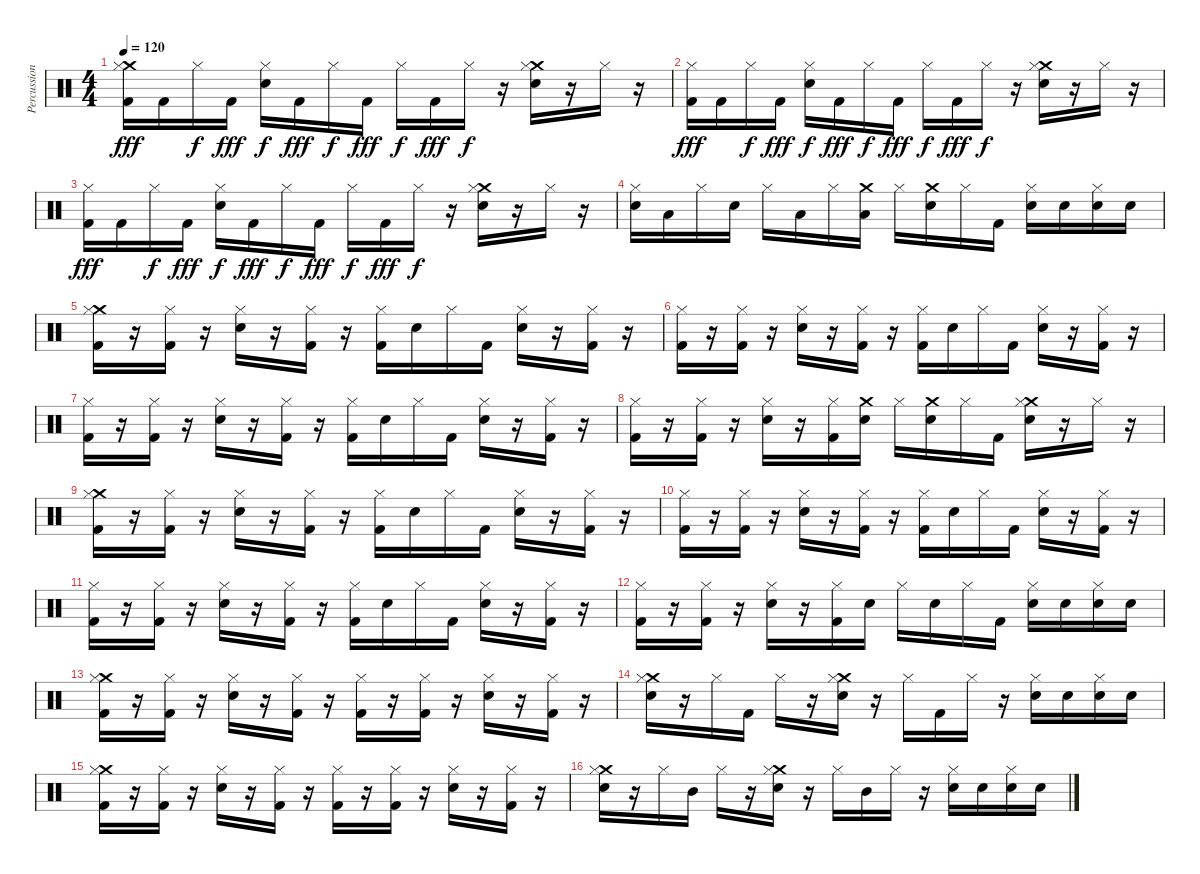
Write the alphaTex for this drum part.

\track ("Percussion" "Percussion") {instrument percussion}
\staff {score}
\articulation defaults
\ts (4 4)
\tempo 120
\clef neutral
\ks c
("Crash medium (hit)" "Hi-Hat (closed)" "Kick (hit) 2").16{dy fff} "Kick (hit) 2".16 "Hi-Hat (closed)".16{dy f} "Kick (hit) 2".16{dy fff} ("Hi-Hat (closed)" "Snare (hit) 2").16{dy f} "Kick (hit) 2".16{dy fff} "Hi-Hat (closed)".16{dy f} "Kick (hit) 2".16{dy fff} "Hi-Hat (closed)".16{dy f} "Kick (hit) 2".16{dy fff} "Hi-Hat (closed)".16{dy f} r.16 ("Crash medium (hit)" "Hi-Hat (closed)" "Snare (hit) 2").16 r.16 "Hi-Hat (closed)".16 r.16 |
("Hi-Hat (closed)" "Kick (hit) 2").16{dy fff} "Kick (hit) 2".16 "Hi-Hat (closed)".16{dy f} "Kick (hit) 2".16{dy fff} ("Hi-Hat (closed)" "Snare (hit) 2").16{dy f} "Kick (hit) 2".16{dy fff} "Hi-Hat (closed)".16{dy f} "Kick (hit) 2".16{dy fff} "Hi-Hat (closed)".16{dy f} "Kick (hit) 2".16{dy fff} "Hi-Hat (closed)".16{dy f} r.16 ("Crash medium (hit)" "Hi-Hat (closed)" "Snare (hit) 2").16 r.16 "Hi-Hat (closed)".16 r.16 |
("Hi-Hat (closed)" "Kick (hit) 2").16{dy fff} "Kick (hit) 2".16 "Hi-Hat (closed)".16{dy f} "Kick (hit) 2".16{dy fff} ("Hi-Hat (closed)" "Snare (hit) 2").16{dy f} "Kick (hit) 2".16{dy fff} "Hi-Hat (closed)".16{dy f} "Kick (hit) 2".16{dy fff} "Hi-Hat (closed)".16{dy f} "Kick (hit) 2".16{dy fff} "Hi-Hat (closed)".16{dy f} r.16 ("Crash medium (hit)" "Hi-Hat (closed)" "Snare (hit) 2").16 r.16 "Hi-Hat (closed)".16 r.16 |
("Hi-Hat (closed)" "Snare (hit) 2").16 "Low Floor Tom (hit)".16 "Hi-Hat (closed)".16 "Snare (hit) 2".16 "Hi-Hat (closed)".16 "Low Floor Tom (hit)".16 "Hi-Hat (closed)".16 ("Crash medium (hit)" "Low Floor Tom (hit)").16 "Hi-Hat (closed)".16 ("Crash medium (hit)" "Snare (hit) 2").16 "Hi-Hat (closed)".16 "Kick (hit) 2".16 ("Hi-Hat (closed)" "Snare (hit) 2").16 "Snare (hit) 2".16 ("Hi-Hat (closed)" "Snare (hit) 2").16 "Snare (hit) 2".16 |
("Crash medium (hit)" "Hi-Hat (closed)" "Kick (hit) 2").16 r.16 ("Hi-Hat (closed)" "Kick (hit) 2").16 r.16 ("Hi-Hat (closed)" "Snare (hit) 2").16 r.16 ("Hi-Hat (closed)" "Kick (hit) 2").16 r.16 ("Hi-Hat (closed)" "Kick (hit) 2").16 "Snare (hit) 2".16 "Hi-Hat (closed)".16 "Kick (hit) 2".16 ("Hi-Hat (closed)" "Snare (hit) 2").16 r.16 ("Hi-Hat (closed)" "Kick (hit) 2").16 r.16 |
("Hi-Hat (closed)" "Kick (hit) 2").16 r.16 ("Hi-Hat (closed)" "Kick (hit) 2").16 r.16 ("Hi-Hat (closed)" "Snare (hit) 2").16 r.16 ("Hi-Hat (closed)" "Kick (hit) 2").16 r.16 ("Hi-Hat (closed)" "Kick (hit) 2").16 "Snare (hit) 2".16 "Hi-Hat (closed)".16 "Kick (hit) 2".16 ("Hi-Hat (closed)" "Snare (hit) 2").16 r.16 ("Hi-Hat (closed)" "Kick (hit) 2").16 r.16 |
("Hi-Hat (closed)" "Kick (hit) 2").16 r.16 ("Hi-Hat (closed)" "Kick (hit) 2").16 r.16 ("Hi-Hat (closed)" "Snare (hit) 2").16 r.16 ("Hi-Hat (closed)" "Kick (hit) 2").16 r.16 ("Hi-Hat (closed)" "Kick (hit) 2").16 "Snare (hit) 2".16 "Hi-Hat (closed)".16 "Kick (hit) 2".16 ("Hi-Hat (closed)" "Snare (hit) 2").16 r.16 ("Hi-Hat (closed)" "Kick (hit) 2").16 r.16 |
("Hi-Hat (closed)" "Kick (hit) 2").16 r.16 ("Hi-Hat (closed)" "Kick (hit) 2").16 r.16 ("Hi-Hat (closed)" "Snare (hit) 2").16 r.16 ("Hi-Hat (closed)" "Kick (hit) 2").16 ("Crash medium (hit)" "Snare (hit) 2").16 "Hi-Hat (closed)".16 ("Crash medium (hit)" "Snare (hit) 2").16 "Hi-Hat (closed)".16 "Kick (hit) 2".16 ("Crash medium (hit)" "Hi-Hat (closed)" "Snare (hit) 2").16 r.16 "Hi-Hat (closed)".16 r.16 |
("Crash medium (hit)" "Hi-Hat (closed)" "Kick (hit) 2").16 r.16 ("Hi-Hat (closed)" "Kick (hit) 2").16 r.16 ("Hi-Hat (closed)" "Snare (hit) 2").16 r.16 ("Hi-Hat (closed)" "Kick (hit) 2").16 r.16 ("Hi-Hat (closed)" "Kick (hit) 2").16 "Snare (hit) 2".16 "Hi-Hat (closed)".16 "Kick (hit) 2".16 ("Hi-Hat (closed)" "Snare (hit) 2").16 r.16 ("Hi-Hat (closed)" "Kick (hit) 2").16 r.16 |
("Hi-Hat (closed)" "Kick (hit) 2").16 r.16 ("Hi-Hat (closed)" "Kick (hit) 2").16 r.16 ("Hi-Hat (closed)" "Snare (hit) 2").16 r.16 ("Hi-Hat (closed)" "Kick (hit) 2").16 r.16 ("Hi-Hat (closed)" "Kick (hit) 2").16 "Snare (hit) 2".16 "Hi-Hat (closed)".16 "Kick (hit) 2".16 ("Hi-Hat (closed)" "Snare (hit) 2").16 r.16 ("Hi-Hat (closed)" "Kick (hit) 2").16 r.16 |
("Hi-Hat (closed)" "Kick (hit) 2").16 r.16 ("Hi-Hat (closed)" "Kick (hit) 2").16 r.16 ("Hi-Hat (closed)" "Snare (hit) 2").16 r.16 ("Hi-Hat (closed)" "Kick (hit) 2").16 r.16 ("Hi-Hat (closed)" "Kick (hit) 2").16 "Snare (hit) 2".16 "Hi-Hat (closed)".16 "Kick (hit) 2".16 ("Hi-Hat (closed)" "Snare (hit) 2").16 r.16 ("Hi-Hat (closed)" "Kick (hit) 2").16 r.16 |
("Hi-Hat (closed)" "Kick (hit) 2").16 r.16 ("Hi-Hat (closed)" "Kick (hit) 2").16 r.16 ("Hi-Hat (closed)" "Snare (hit) 2").16 r.16 ("Hi-Hat (closed)" "Kick (hit) 2").16 "Snare (hit) 2".16 "Hi-Hat (closed)".16 "Snare (hit) 2".16 "Hi-Hat (closed)".16 "Kick (hit) 2".16 ("Hi-Hat (closed)" "Snare (hit) 2").16 "Snare (hit) 2".16 ("Hi-Hat (closed)" "Snare (hit) 2").16 "Snare (hit) 2".16 |
("Crash medium (hit)" "Hi-Hat (closed)" "Kick (hit) 2").16 r.16 ("Hi-Hat (closed)" "Kick (hit) 2").16 r.16 ("Hi-Hat (closed)" "Snare (hit) 2").16 r.16 ("Hi-Hat (closed)" "Kick (hit) 2").16 r.16 ("Hi-Hat (closed)" "Kick (hit) 2").16 r.16 ("Hi-Hat (closed)" "Kick (hit) 2").16 r.16 ("Hi-Hat (closed)" "Snare (hit) 2").16 r.16 ("Hi-Hat (closed)" "Kick (hit) 2").16 r.16 |
("Crash medium (hit)" "Hi-Hat (closed)" "Snare (hit) 2").16 r.16 "Hi-Hat (closed)".16 "Kick (hit) 2".16 "Hi-Hat (closed)".16 r.16 ("Crash medium (hit)" "Hi-Hat (closed)" "Snare (hit) 2").16 r.16 "Hi-Hat (closed)".16 "Kick (hit) 2".16 "Hi-Hat (closed)".16 r.16 ("Hi-Hat (closed)" "Snare (hit) 2").16 "Snare (hit) 2".16 ("Hi-Hat (closed)" "Snare (hit) 2").16 "Snare (hit) 2".16 |
("Crash medium (hit)" "Hi-Hat (closed)" "Kick (hit) 2").16 r.16 ("Hi-Hat (closed)" "Kick (hit) 2").16 r.16 ("Hi-Hat (closed)" "Snare (hit) 2").16 r.16 ("Hi-Hat (closed)" "Kick (hit) 2").16 r.16 ("Hi-Hat (closed)" "Kick (hit) 2").16 r.16 ("Hi-Hat (closed)" "Kick (hit) 2").16 r.16 ("Hi-Hat (closed)" "Snare (hit) 2").16 r.16 ("Hi-Hat (closed)" "Kick (hit) 2").16 r.16 |
("Crash medium (hit)" "Hi-Hat (closed)" "Snare (hit) 2").16 r.16 "Hi-Hat (closed)".16 "Mid Tom (hit)".16 "Hi-Hat (closed)".16 r.16 ("Crash medium (hit)" "Hi-Hat (closed)" "Snare (hit) 2").16 r.16 "Hi-Hat (closed)".16 "Mid Tom (hit)".16 "Hi-Hat (closed)".16 r.16 ("Hi-Hat (closed)" "Snare (hit) 2").16 "Snare (hit) 2".16 ("Hi-Hat (closed)" "Snare (hit) 2").16 "Snare (hit) 2".16
